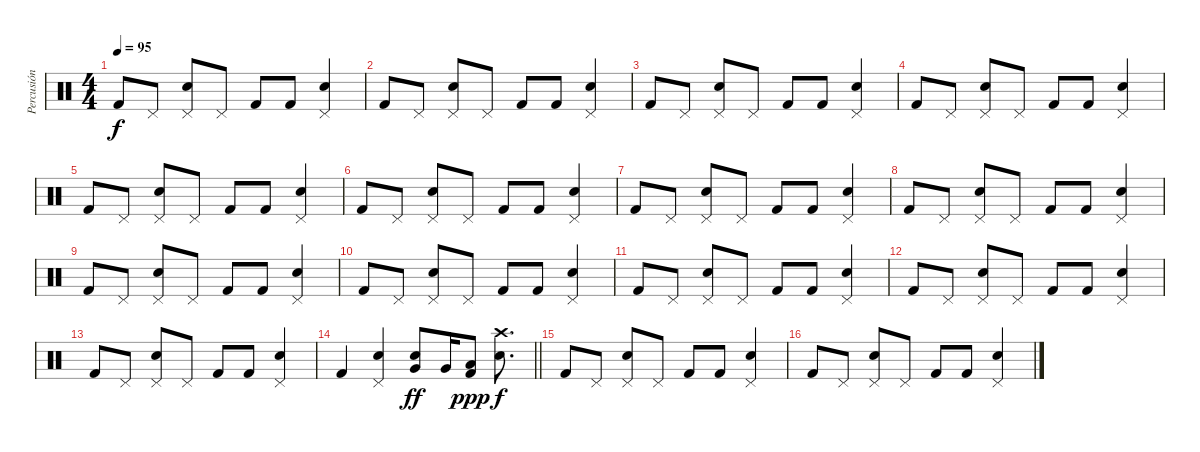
\track ("Percusión" "Percusión") {instrument percussion}
\staff {score}
\articulation defaults
\ts (4 4)
\tempo 95
\clef neutral
\ks c "Kick (hit) 2".8{dy f} "Pedal Hi-Hat (hit)".8
("Snare (hit) 2" "Pedal Hi-Hat (hit)").8 "Pedal Hi-Hat (hit)".8 "Kick (hit) 2".8 "Kick (hit) 2".8 ("Snare (hit) 2" "Pedal Hi-Hat (hit)").4 |
"Kick (hit) 2".8 "Pedal Hi-Hat (hit)".8 ("Snare (hit) 2" "Pedal Hi-Hat (hit)").8 "Pedal Hi-Hat (hit)".8 "Kick (hit) 2".8 "Kick (hit) 2".8 ("Snare (hit) 2" "Pedal Hi-Hat (hit)").4 |
"Kick (hit) 2".8 "Pedal Hi-Hat (hit)".8 ("Snare (hit) 2" "Pedal Hi-Hat (hit)").8 "Pedal Hi-Hat (hit)".8 "Kick (hit) 2".8 "Kick (hit) 2".8 ("Snare (hit) 2" "Pedal Hi-Hat (hit)").4 |
"Kick (hit) 2".8 "Pedal Hi-Hat (hit)".8 ("Snare (hit) 2" "Pedal Hi-Hat (hit)").8 "Pedal Hi-Hat (hit)".8 "Kick (hit) 2".8 "Kick (hit) 2".8 ("Snare (hit) 2" "Pedal Hi-Hat (hit)").4 |
"Kick (hit) 2".8 "Pedal Hi-Hat (hit)".8 ("Snare (hit) 2" "Pedal Hi-Hat (hit)").8 "Pedal Hi-Hat (hit)".8 "Kick (hit) 2".8 "Kick (hit) 2".8 ("Snare (hit) 2" "Pedal Hi-Hat (hit)").4 |
"Kick (hit) 2".8 "Pedal Hi-Hat (hit)".8 ("Snare (hit) 2" "Pedal Hi-Hat (hit)").8 "Pedal Hi-Hat (hit)".8 "Kick (hit) 2".8 "Kick (hit) 2".8 ("Snare (hit) 2" "Pedal Hi-Hat (hit)").4 |
"Kick (hit) 2".8 "Pedal Hi-Hat (hit)".8 ("Snare (hit) 2" "Pedal Hi-Hat (hit)").8 "Pedal Hi-Hat (hit)".8 "Kick (hit) 2".8 "Kick (hit) 2".8 ("Snare (hit) 2" "Pedal Hi-Hat (hit)").4 |
"Kick (hit) 2".8 "Pedal Hi-Hat (hit)".8 ("Snare (hit) 2" "Pedal Hi-Hat (hit)").8 "Pedal Hi-Hat (hit)".8 "Kick (hit) 2".8 "Kick (hit) 2".8 ("Snare (hit) 2" "Pedal Hi-Hat (hit)").4 |
"Kick (hit) 2".8 "Pedal Hi-Hat (hit)".8 ("Snare (hit) 2" "Pedal Hi-Hat (hit)").8 "Pedal Hi-Hat (hit)".8 "Kick (hit) 2".8 "Kick (hit) 2".8 ("Snare (hit) 2" "Pedal Hi-Hat (hit)").4 |
"Kick (hit) 2".8 "Pedal Hi-Hat (hit)".8 ("Snare (hit) 2" "Pedal Hi-Hat (hit)").8 "Pedal Hi-Hat (hit)".8 "Kick (hit) 2".8 "Kick (hit) 2".8 ("Snare (hit) 2" "Pedal Hi-Hat (hit)").4 |
"Kick (hit) 2".8 "Pedal Hi-Hat (hit)".8 ("Snare (hit) 2" "Pedal Hi-Hat (hit)").8 "Pedal Hi-Hat (hit)".8 "Kick (hit) 2".8 "Kick (hit) 2".8 ("Snare (hit) 2" "Pedal Hi-Hat (hit)").4 |
"Kick (hit) 2".8 "Pedal Hi-Hat (hit)".8 ("Snare (hit) 2" "Pedal Hi-Hat (hit)").8 "Pedal Hi-Hat (hit)".8 "Kick (hit) 2".8 "Kick (hit) 2".8 ("Snare (hit) 2" "Pedal Hi-Hat (hit)").4 |
"Kick (hit) 2".8 "Pedal Hi-Hat (hit)".8 ("Snare (hit) 2" "Pedal Hi-Hat (hit)").8 "Pedal Hi-Hat (hit)".8 "Kick (hit) 2".8 "Kick (hit) 2".8 ("Snare (hit) 2" "Pedal Hi-Hat (hit)").4 |
\barLineRight lightlight "Kick (hit) 2".4
("Snare (hit) 2" "Pedal Hi-Hat (hit)").4 ("Very Low Tom (hit)" "Snare (hit) 2").8{dy ff} "Very Low Tom (hit)".16 ("Low Tom (hit)" "Kick (hit) 2").8{dy ppp} ("Crash high (hit)" "Snare (hit) 2").8{d dy f} |
\section ("" "")
"Kick (hit) 2".8 "Pedal Hi-Hat (hit)".8 ("Snare (hit) 2" "Pedal Hi-Hat (hit)").8 "Pedal Hi-Hat (hit)".8 "Kick (hit) 2".8 "Kick (hit) 2".8 ("Snare (hit) 2" "Pedal Hi-Hat (hit)").4 |
"Kick (hit) 2".8 "Pedal Hi-Hat (hit)".8 ("Snare (hit) 2" "Pedal Hi-Hat (hit)").8 "Pedal Hi-Hat (hit)".8 "Kick (hit) 2".8 "Kick (hit) 2".8 ("Snare (hit) 2" "Pedal Hi-Hat (hit)").4
